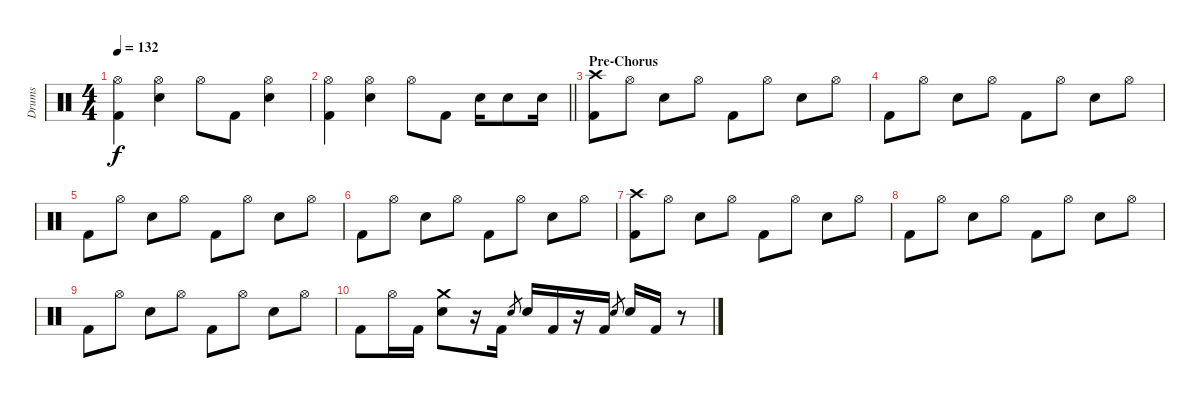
\track ("Drums" "Drums") {instrument percussion}
\staff {score}
\articulation defaults
\ts (4 4)
\tempo 132
\clef neutral
\ks c
("Hi-Hat (open)" "Kick (hit) 2").4{dy f} ("Hi-Hat (open)" "Electric Snare (hit)").4 "Hi-Hat (open)".8 "Kick (hit) 2".8 ("Hi-Hat (open)" "Electric Snare (hit)").4 |
\barLineRight lightlight
("Hi-Hat (open)" "Kick (hit) 2").4 ("Hi-Hat (open)" "Electric Snare (hit)").4 "Hi-Hat (open)".8 "Kick (hit) 2".8 "Electric Snare (hit)".16 "Electric Snare (hit)".8 "Electric Snare (hit)".16 |
\section ("" "Pre-Chorus")
("Crash high (hit)" "Kick (hit) 2").8 "Hi-Hat (open)".8 "Electric Snare (hit)".8 "Hi-Hat (open)".8 "Kick (hit) 2".8 "Hi-Hat (open)".8 "Electric Snare (hit)".8 "Hi-Hat (open)".8 |
"Kick (hit) 2".8 "Hi-Hat (open)".8 "Electric Snare (hit)".8 "Hi-Hat (open)".8 "Kick (hit) 2".8 "Hi-Hat (open)".8 "Electric Snare (hit)".8 "Hi-Hat (open)".8 |
"Kick (hit) 2".8 "Hi-Hat (open)".8 "Electric Snare (hit)".8 "Hi-Hat (open)".8 "Kick (hit) 2".8 "Hi-Hat (open)".8 "Electric Snare (hit)".8 "Hi-Hat (open)".8 |
"Kick (hit) 2".8 "Hi-Hat (open)".8 "Electric Snare (hit)".8 "Hi-Hat (open)".8 "Kick (hit) 2".8 "Hi-Hat (open)".8 "Electric Snare (hit)".8 "Hi-Hat (open)".8 |
("Crash high (hit)" "Kick (hit) 2").8 "Hi-Hat (open)".8 "Electric Snare (hit)".8 "Hi-Hat (open)".8 "Kick (hit) 2".8 "Hi-Hat (open)".8 "Electric Snare (hit)".8 "Hi-Hat (open)".8 |
"Kick (hit) 2".8 "Hi-Hat (open)".8 "Electric Snare (hit)".8 "Hi-Hat (open)".8 "Kick (hit) 2".8 "Hi-Hat (open)".8 "Electric Snare (hit)".8 "Hi-Hat (open)".8 |
"Kick (hit) 2".8 "Hi-Hat (open)".8 "Electric Snare (hit)".8 "Hi-Hat (open)".8 "Kick (hit) 2".8 "Hi-Hat (open)".8 "Electric Snare (hit)".8 "Hi-Hat (open)".8 |
"Kick (hit) 2".8 "Hi-Hat (open)".16 "Kick (hit) 2".16 ("Crash medium (hit)" "Electric Snare (hit)").8 r.16 "Kick (hit) 2".16 "Electric Snare (hit)".8{gr} "Electric Snare (hit)".16 "Kick (hit) 2".16 r.16 "Kick (hit) 2".16 "Electric Snare (hit)".8{gr} "Electric Snare (hit)".16 "Kick (hit) 2".16 r.8
